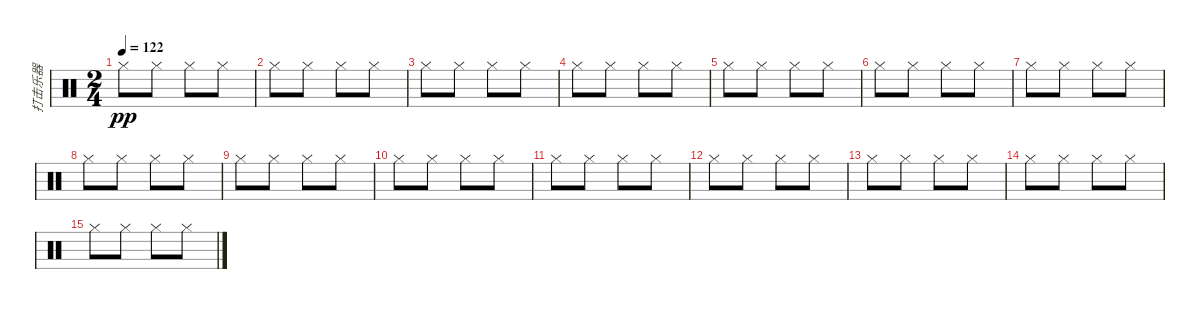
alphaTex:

\track ("打击乐器" "打击乐器") {instrument percussion}
\staff {score}
\articulation defaults
\ts (2 4)
\tempo 122
\clef neutral
\ks c "Hi-Hat (closed)".8{dy pp} "Hi-Hat (closed)".8 "Hi-Hat (closed)".8 "Hi-Hat (closed)".8
|
"Hi-Hat (closed)".8 "Hi-Hat (closed)".8 "Hi-Hat (closed)".8 "Hi-Hat (closed)".8 |
"Hi-Hat (closed)".8 "Hi-Hat (closed)".8 "Hi-Hat (closed)".8 "Hi-Hat (closed)".8 |
"Hi-Hat (closed)".8 "Hi-Hat (closed)".8 "Hi-Hat (closed)".8 "Hi-Hat (closed)".8 |
"Hi-Hat (closed)".8 "Hi-Hat (closed)".8 "Hi-Hat (closed)".8 "Hi-Hat (closed)".8 |
"Hi-Hat (closed)".8 "Hi-Hat (closed)".8 "Hi-Hat (closed)".8 "Hi-Hat (closed)".8 |
"Hi-Hat (closed)".8 "Hi-Hat (closed)".8 "Hi-Hat (closed)".8 "Hi-Hat (closed)".8 |
"Hi-Hat (closed)".8 "Hi-Hat (closed)".8 "Hi-Hat (closed)".8 "Hi-Hat (closed)".8 |
"Hi-Hat (closed)".8 "Hi-Hat (closed)".8 "Hi-Hat (closed)".8 "Hi-Hat (closed)".8 |
"Hi-Hat (closed)".8 "Hi-Hat (closed)".8 "Hi-Hat (closed)".8 "Hi-Hat (closed)".8 |
"Hi-Hat (closed)".8 "Hi-Hat (closed)".8 "Hi-Hat (closed)".8 "Hi-Hat (closed)".8 |
"Hi-Hat (closed)".8 "Hi-Hat (closed)".8 "Hi-Hat (closed)".8 "Hi-Hat (closed)".8 |
"Hi-Hat (closed)".8 "Hi-Hat (closed)".8 "Hi-Hat (closed)".8 "Hi-Hat (closed)".8 |
"Hi-Hat (closed)".8 "Hi-Hat (closed)".8 "Hi-Hat (closed)".8 "Hi-Hat (closed)".8 |
"Hi-Hat (closed)".8 "Hi-Hat (closed)".8 "Hi-Hat (closed)".8 "Hi-Hat (closed)".8
